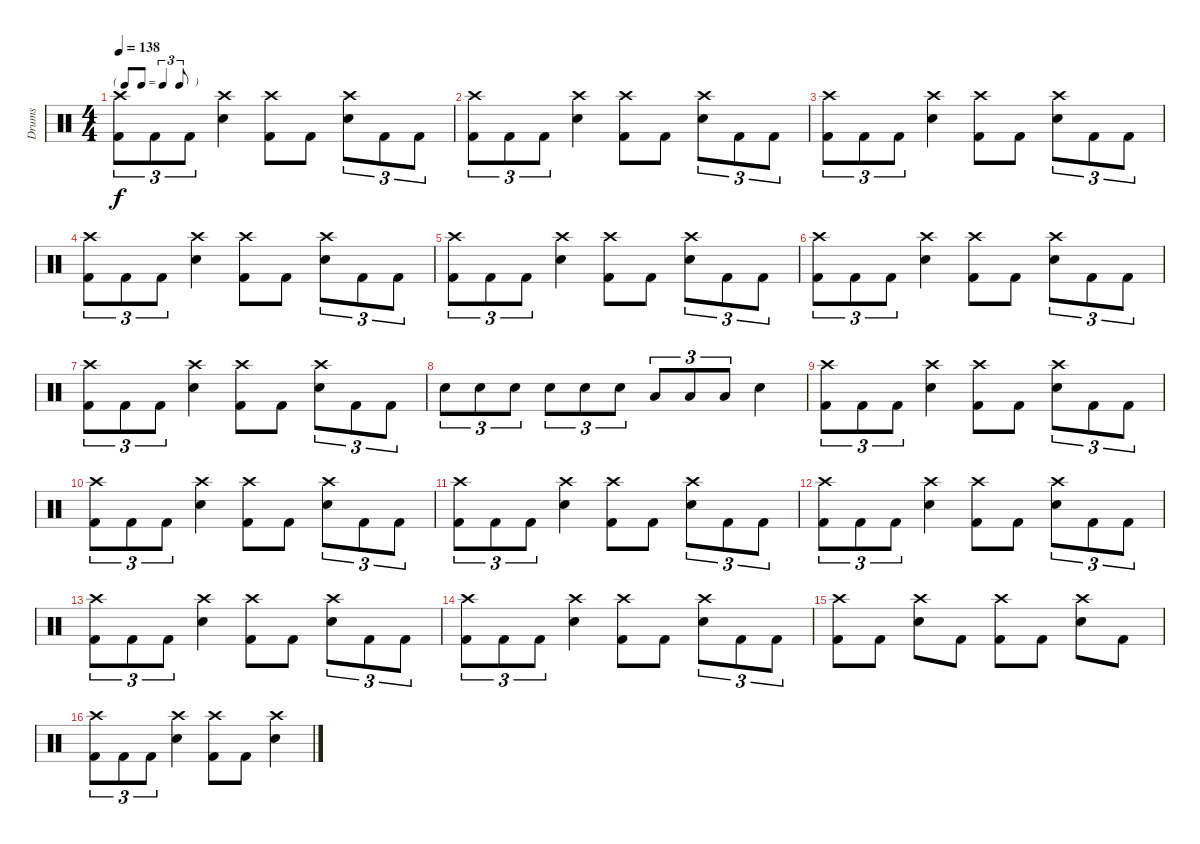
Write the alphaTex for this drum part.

\track ("Drums" "Drums") {instrument percussion}
\staff {score}
\articulation defaults
\ts (4 4)
\tf triplet8th
\tempo 138
\clef neutral
\ks c
("Crash high (hit)" "Kick (hit) 2").8{tu (3 2) dy f} "Kick (hit) 2".8{tu (3 2)} "Kick (hit) 2".8{tu (3 2)} ("Crash high (hit)" "Snare (hit) 2").4 ("Crash high (hit)" "Kick (hit) 2").8 "Kick (hit) 2".8 ("Crash high (hit)" "Snare (hit) 2").8{tu (3 2)} "Kick (hit) 2".8{tu (3 2)} "Kick (hit) 2".8{tu (3 2)} |
("Crash high (hit)" "Kick (hit) 2").8{tu (3 2)} "Kick (hit) 2".8{tu (3 2)} "Kick (hit) 2".8{tu (3 2)} ("Crash high (hit)" "Snare (hit) 2").4 ("Crash high (hit)" "Kick (hit) 2").8 "Kick (hit) 2".8 ("Crash high (hit)" "Snare (hit) 2").8{tu (3 2)} "Kick (hit) 2".8{tu (3 2)} "Kick (hit) 2".8{tu (3 2)} |
("Crash high (hit)" "Kick (hit) 2").8{tu (3 2)} "Kick (hit) 2".8{tu (3 2)} "Kick (hit) 2".8{tu (3 2)} ("Crash high (hit)" "Snare (hit) 2").4 ("Crash high (hit)" "Kick (hit) 2").8 "Kick (hit) 2".8 ("Crash high (hit)" "Snare (hit) 2").8{tu (3 2)} "Kick (hit) 2".8{tu (3 2)} "Kick (hit) 2".8{tu (3 2)} |
("Crash high (hit)" "Kick (hit) 2").8{tu (3 2)} "Kick (hit) 2".8{tu (3 2)} "Kick (hit) 2".8{tu (3 2)} ("Crash high (hit)" "Snare (hit) 2").4 ("Crash high (hit)" "Kick (hit) 2").8 "Kick (hit) 2".8 ("Crash high (hit)" "Snare (hit) 2").8{tu (3 2)} "Kick (hit) 2".8{tu (3 2)} "Kick (hit) 2".8{tu (3 2)} |
("Crash high (hit)" "Kick (hit) 2").8{tu (3 2)} "Kick (hit) 2".8{tu (3 2)} "Kick (hit) 2".8{tu (3 2)} ("Crash high (hit)" "Snare (hit) 2").4 ("Crash high (hit)" "Kick (hit) 2").8 "Kick (hit) 2".8 ("Crash high (hit)" "Snare (hit) 2").8{tu (3 2)} "Kick (hit) 2".8{tu (3 2)} "Kick (hit) 2".8{tu (3 2)} |
("Crash high (hit)" "Kick (hit) 2").8{tu (3 2)} "Kick (hit) 2".8{tu (3 2)} "Kick (hit) 2".8{tu (3 2)} ("Crash high (hit)" "Snare (hit) 2").4 ("Crash high (hit)" "Kick (hit) 2").8 "Kick (hit) 2".8 ("Crash high (hit)" "Snare (hit) 2").8{tu (3 2)} "Kick (hit) 2".8{tu (3 2)} "Kick (hit) 2".8{tu (3 2)} |
("Crash high (hit)" "Kick (hit) 2").8{tu (3 2)} "Kick (hit) 2".8{tu (3 2)} "Kick (hit) 2".8{tu (3 2)} ("Crash high (hit)" "Snare (hit) 2").4 ("Crash high (hit)" "Kick (hit) 2").8 "Kick (hit) 2".8 ("Crash high (hit)" "Snare (hit) 2").8{tu (3 2)} "Kick (hit) 2".8{tu (3 2)} "Kick (hit) 2".8{tu (3 2)} |
"Snare (hit) 2".8{tu (3 2)} "Snare (hit) 2".8{tu (3 2)} "Snare (hit) 2".8{tu (3 2)} "Snare (hit) 2".8{tu (3 2)} "Snare (hit) 2".8{tu (3 2)} "Snare (hit) 2".8{tu (3 2)} "Low Tom (hit)".8{tu (3 2)} "Low Tom (hit)".8{tu (3 2)} "Low Tom (hit)".8{tu (3 2)} "Snare (hit) 2".4 |
("Crash high (hit)" "Kick (hit) 2").8{tu (3 2)} "Kick (hit) 2".8{tu (3 2)} "Kick (hit) 2".8{tu (3 2)} ("Crash high (hit)" "Snare (hit) 2").4 ("Crash high (hit)" "Kick (hit) 2").8 "Kick (hit) 2".8 ("Crash high (hit)" "Snare (hit) 2").8{tu (3 2)} "Kick (hit) 2".8{tu (3 2)} "Kick (hit) 2".8{tu (3 2)} |
("Crash high (hit)" "Kick (hit) 2").8{tu (3 2)} "Kick (hit) 2".8{tu (3 2)} "Kick (hit) 2".8{tu (3 2)} ("Crash high (hit)" "Snare (hit) 2").4 ("Crash high (hit)" "Kick (hit) 2").8 "Kick (hit) 2".8 ("Crash high (hit)" "Snare (hit) 2").8{tu (3 2)} "Kick (hit) 2".8{tu (3 2)} "Kick (hit) 2".8{tu (3 2)} |
("Crash high (hit)" "Kick (hit) 2").8{tu (3 2)} "Kick (hit) 2".8{tu (3 2)} "Kick (hit) 2".8{tu (3 2)} ("Crash high (hit)" "Snare (hit) 2").4 ("Crash high (hit)" "Kick (hit) 2").8 "Kick (hit) 2".8 ("Crash high (hit)" "Snare (hit) 2").8{tu (3 2)} "Kick (hit) 2".8{tu (3 2)} "Kick (hit) 2".8{tu (3 2)} |
("Crash high (hit)" "Kick (hit) 2").8{tu (3 2)} "Kick (hit) 2".8{tu (3 2)} "Kick (hit) 2".8{tu (3 2)} ("Crash high (hit)" "Snare (hit) 2").4 ("Crash high (hit)" "Kick (hit) 2").8 "Kick (hit) 2".8 ("Crash high (hit)" "Snare (hit) 2").8{tu (3 2)} "Kick (hit) 2".8{tu (3 2)} "Kick (hit) 2".8{tu (3 2)} |
("Crash high (hit)" "Kick (hit) 2").8{tu (3 2)} "Kick (hit) 2".8{tu (3 2)} "Kick (hit) 2".8{tu (3 2)} ("Crash high (hit)" "Snare (hit) 2").4 ("Crash high (hit)" "Kick (hit) 2").8 "Kick (hit) 2".8 ("Crash high (hit)" "Snare (hit) 2").8{tu (3 2)} "Kick (hit) 2".8{tu (3 2)} "Kick (hit) 2".8{tu (3 2)} |
("Crash high (hit)" "Kick (hit) 2").8{tu (3 2)} "Kick (hit) 2".8{tu (3 2)} "Kick (hit) 2".8{tu (3 2)} ("Crash high (hit)" "Snare (hit) 2").4 ("Crash high (hit)" "Kick (hit) 2").8 "Kick (hit) 2".8 ("Crash high (hit)" "Snare (hit) 2").8{tu (3 2)} "Kick (hit) 2".8{tu (3 2)} "Kick (hit) 2".8{tu (3 2)} |
("Crash high (hit)" "Kick (hit) 2").8 "Kick (hit) 2".8 ("Crash high (hit)" "Snare (hit) 2").8 "Kick (hit) 2".8 ("Crash high (hit)" "Kick (hit) 2").8 "Kick (hit) 2".8 ("Crash high (hit)" "Snare (hit) 2").8 "Kick (hit) 2".8 |
("Crash high (hit)" "Kick (hit) 2").8{tu (3 2)} "Kick (hit) 2".8{tu (3 2)} "Kick (hit) 2".8{tu (3 2)} ("Crash high (hit)" "Snare (hit) 2").4 ("Crash high (hit)" "Kick (hit) 2").8 "Kick (hit) 2".8 ("Crash high (hit)" "Snare (hit) 2").4
